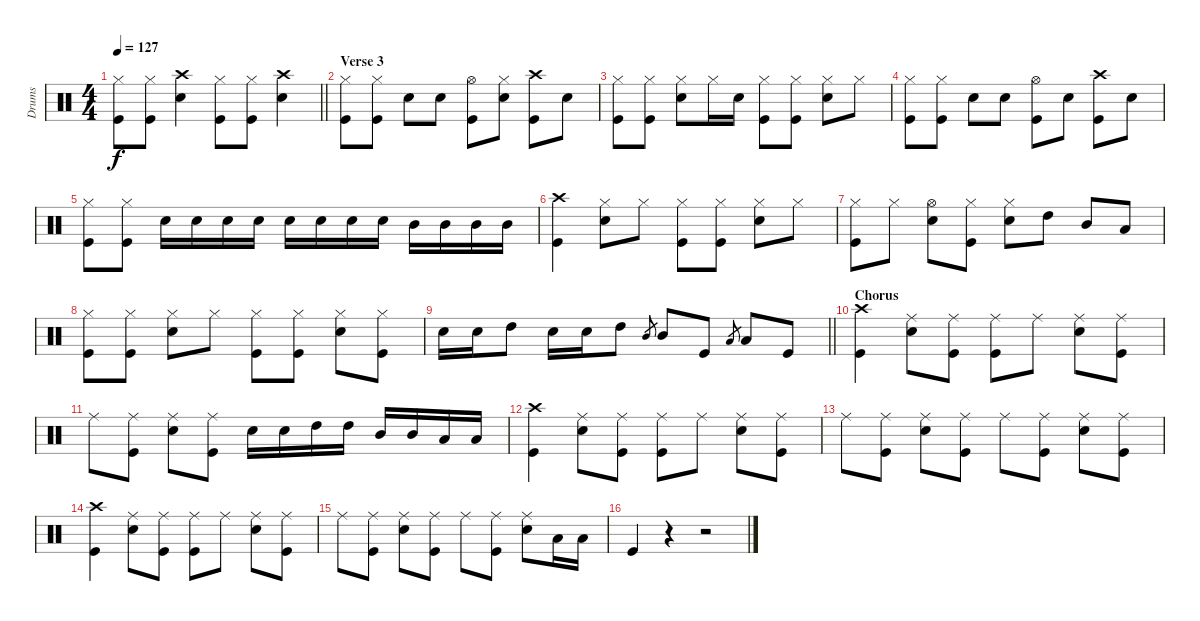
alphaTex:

\track ("Drums" "Drums") {instrument percussion}
\staff {score}
\articulation defaults
\ts (4 4)
\tempo 127
\clef neutral
\barLineRight lightlight
\ks c
("Hi-Hat (closed)" "Kick (hit)").8{dy f} ("Kick (hit)" "Hi-Hat (closed)").8 ("Crash high (hit)" "Snare (hit) 2").4 ("Hi-Hat (closed)" "Kick (hit)").8 ("Kick (hit)" "Hi-Hat (closed)").8 ("Crash high (hit)" "Snare (hit) 2").4 |
\section ("" "Verse 3")
("Hi-Hat (closed)" "Kick (hit)").8 ("Kick (hit)" "Hi-Hat (closed)").8 "Snare (hit) 2".8 "Snare (hit) 2".8 ("Hi-Hat (open)" "Kick (hit)").8 ("Snare (hit) 2" "Hi-Hat (closed)").8 ("Crash high (hit)" "Kick (hit)").8 "Snare (hit) 2".8 |
("Hi-Hat (closed)" "Kick (hit)").8 ("Kick (hit)" "Hi-Hat (closed)").8 ("Hi-Hat (closed)" "Snare (hit) 2").8 "Hi-Hat (closed)".16 "Snare (hit) 2".16 ("Kick (hit)" "Hi-Hat (closed)").8 ("Hi-Hat (closed)" "Kick (hit)").8 ("Snare (hit) 2" "Hi-Hat (closed)").8 "Hi-Hat (closed)".8 |
("Hi-Hat (closed)" "Kick (hit)").8 ("Kick (hit)" "Hi-Hat (closed)").8 "Snare (hit) 2".8 "Snare (hit) 2".8 ("Hi-Hat (open)" "Kick (hit)").8 "Snare (hit) 2".8 ("Crash high (hit)" "Kick (hit)").8 "Snare (hit) 2".8 |
("Hi-Hat (closed)" "Kick (hit)").8 ("Hi-Hat (closed)" "Kick (hit)").8 "Snare (hit) 2".16 "Snare (hit) 2".16 "Snare (hit) 2".16 "Snare (hit) 2".16 "Snare (hit) 2".16 "Snare (hit) 2".16 "Snare (hit) 2".16 "Snare (hit) 2".16 "Mid Tom (hit)".16 "Mid Tom (hit)".16 "Mid Tom (hit)".16 "Mid Tom (hit)".16 |
("Crash high (hit)" "Kick (hit)").4 ("Snare (hit) 2" "Hi-Hat (closed)").8 "Hi-Hat (closed)".8 ("Hi-Hat (closed)" "Kick (hit)").8 ("Kick (hit)" "Hi-Hat (closed)").8 ("Hi-Hat (closed)" "Snare (hit) 2").8 "Hi-Hat (closed)".8 |
("Hi-Hat (closed)" "Kick (hit)").8 "Hi-Hat (closed)".8 ("Hi-Hat (open)" "Snare (hit) 2").8 ("Hi-Hat (closed)" "Kick (hit)").8 ("Hi-Hat (closed)" "Snare (hit) 2").8 "High Tom (hit)".8 "Mid Tom (hit)".8 "Low Tom (hit)".8 |
("Hi-Hat (closed)" "Kick (hit)").8 ("Hi-Hat (closed)" "Kick (hit)").8 ("Hi-Hat (closed)" "Snare (hit) 2").8 "Hi-Hat (closed)".8 ("Hi-Hat (closed)" "Kick (hit)").8 ("Hi-Hat (closed)" "Kick (hit)").8 ("Hi-Hat (closed)" "Snare (hit) 2").8 ("Hi-Hat (closed)" "Kick (hit)").8 |
\barLineRight lightlight "Snare (hit) 2".16 "Snare (hit) 2".16 "High Tom (hit)".8 "Snare (hit) 2".16 "Snare (hit) 2".16 "High Tom (hit)".8 "Mid Tom (hit)".8{gr} "Mid Tom (hit)".8 "Kick (hit)".8 "Low Tom (hit)".8{gr} "Low Tom (hit)".8 "Kick (hit)".8
|
\section ("" "Chorus")
("Crash high (hit)" "Kick (hit)").4 ("Ride (middle)" "Snare (hit) 2").8 ("Ride (middle)" "Kick (hit)").8 ("Ride (middle)" "Kick (hit)").8 "Ride (middle)".8 ("Ride (middle)" "Snare (hit) 2").8 ("Kick (hit)" "Ride (middle)").8 |
"Ride (middle)".8 ("Ride (middle)" "Kick (hit)").8 ("Snare (hit) 2" "Ride (middle)").8 ("Ride (middle)" "Kick (hit)").8 "Snare (hit) 2".16 "Snare (hit) 2".16 "High Tom (hit)".16 "High Tom (hit)".16 "Mid Tom (hit)".16 "Mid Tom (hit)".16 "Low Tom (hit)".16 "Low Tom (hit)".16 |
("Kick (hit)" "Crash high (hit)").4 ("Ride (middle)" "Snare (hit) 2").8 ("Ride (middle)" "Kick (hit)").8 ("Ride (middle)" "Kick (hit)").8 "Ride (middle)".8 ("Ride (middle)" "Snare (hit) 2").8 ("Ride (middle)" "Kick (hit)").8 |
"Ride (middle)".8 ("Ride (middle)" "Kick (hit)").8 ("Ride (middle)" "Snare (hit) 2").8 ("Ride (middle)" "Kick (hit)").8 "Ride (middle)".8 ("Ride (middle)" "Kick (hit)").8 ("Ride (middle)" "Snare (hit) 2").8 ("Ride (middle)" "Kick (hit)").8 |
("Kick (hit)" "Crash high (hit)").4 ("Ride (middle)" "Snare (hit) 2").8 ("Ride (middle)" "Kick (hit)").8 ("Ride (middle)" "Kick (hit)").8 "Ride (middle)".8 ("Ride (middle)" "Snare (hit) 2").8 ("Ride (middle)" "Kick (hit)").8 |
"Ride (middle)".8 ("Ride (middle)" "Kick (hit)").8 ("Ride (middle)" "Snare (hit) 2").8 ("Ride (middle)" "Kick (hit)").8 "Ride (middle)".8 ("Ride (middle)" "Kick (hit)").8 ("Ride (middle)" "Snare (hit) 2").8 "Low Tom (hit)".16 "Low Tom (hit)".16 |
"Kick (hit)".4 r.4 r.2
